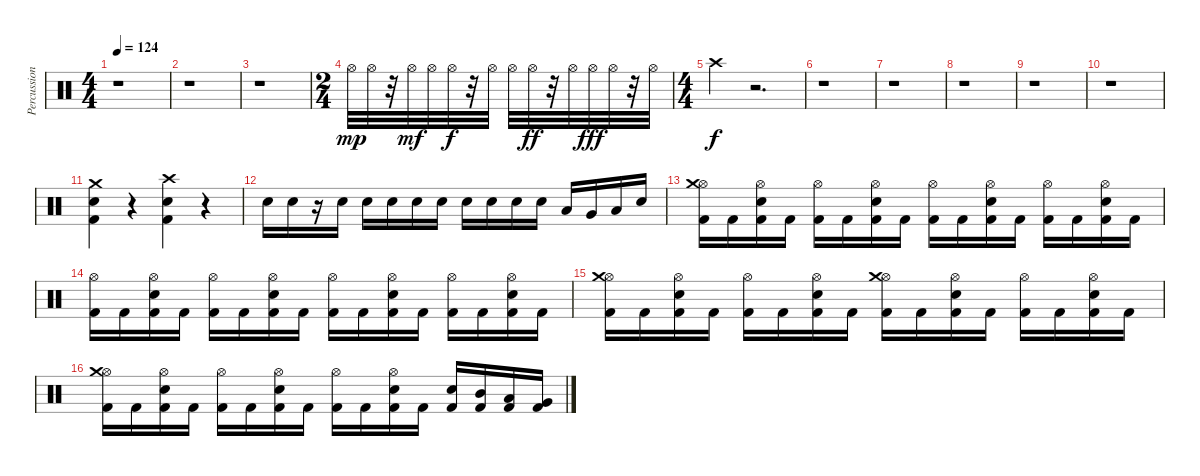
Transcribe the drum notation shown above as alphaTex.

\track ("Percussion" "Percussion") {instrument percussion}
\staff {score}
\articulation defaults
\ts (4 4)
\tempo 124
\clef neutral
\ks c
r.1{dy f} |
r.1 |
r.1 |
\ts (2 4)
"Hi-Hat (open)".32{dy mp} "Hi-Hat (open)".32 r.32 "Hi-Hat (open)".32{dy mf} "Hi-Hat (open)".32 "Hi-Hat (open)".32{dy f} r.32 "Hi-Hat (open)".32 "Hi-Hat (open)".32 "Hi-Hat (open)".32{dy ff} r.32 "Hi-Hat (open)".32 "Hi-Hat (open)".32{dy fff} "Hi-Hat (open)".32 r.32 "Hi-Hat (open)".32 |
\ts (4 4)
"Crash high (hit)".4{dy f} r.2{d} |
r.1 |
r.1 |
r.1 |
r.1 |
r.1 |
("Kick (hit) 2" "Electric Snare (hit)" "Crash medium (hit)").4 r.4 ("Kick (hit) 2" "Electric Snare (hit)" "Crash high (hit)").4 r.4 |
"Electric Snare (hit)".16 "Electric Snare (hit)".16 r.16 "Electric Snare (hit)".16 "Electric Snare (hit)".16 "Electric Snare (hit)".16 "Electric Snare (hit)".16 "Electric Snare (hit)".16 "Electric Snare (hit)".16 "Electric Snare (hit)".16 "Electric Snare (hit)".16 "Electric Snare (hit)".16 "Low Tom (hit)".16 "Very Low Tom (hit)".16 "Low Floor Tom (hit)".16 "Electric Snare (hit)".16 |
("Kick (hit) 2" "Hi-Hat (open)" "Crash medium (hit)").16 "Kick (hit) 2".16 ("Kick (hit) 2" "Electric Snare (hit)" "Hi-Hat (open)").16 "Kick (hit) 2".16 ("Kick (hit) 2" "Hi-Hat (open)").16 "Kick (hit) 2".16 ("Kick (hit) 2" "Electric Snare (hit)" "Hi-Hat (open)").16 "Kick (hit) 2".16 ("Kick (hit) 2" "Hi-Hat (open)").16 "Kick (hit) 2".16 ("Kick (hit) 2" "Electric Snare (hit)" "Hi-Hat (open)").16 "Kick (hit) 2".16 ("Kick (hit) 2" "Hi-Hat (open)").16 "Kick (hit) 2".16 ("Kick (hit) 2" "Electric Snare (hit)" "Hi-Hat (open)").16 "Kick (hit) 2".16 |
("Kick (hit) 2" "Hi-Hat (open)").16 "Kick (hit) 2".16 ("Kick (hit) 2" "Electric Snare (hit)" "Hi-Hat (open)").16 "Kick (hit) 2".16 ("Kick (hit) 2" "Hi-Hat (open)").16 "Kick (hit) 2".16 ("Kick (hit) 2" "Electric Snare (hit)" "Hi-Hat (open)").16 "Kick (hit) 2".16 ("Kick (hit) 2" "Hi-Hat (open)").16 "Kick (hit) 2".16 ("Kick (hit) 2" "Electric Snare (hit)" "Hi-Hat (open)").16 "Kick (hit) 2".16 ("Kick (hit) 2" "Hi-Hat (open)").16 "Kick (hit) 2".16 ("Kick (hit) 2" "Electric Snare (hit)" "Hi-Hat (open)").16 "Kick (hit) 2".16 |
("Kick (hit) 2" "Hi-Hat (open)" "Crash medium (hit)").16 "Kick (hit) 2".16 ("Kick (hit) 2" "Electric Snare (hit)" "Hi-Hat (open)").16 "Kick (hit) 2".16 ("Kick (hit) 2" "Hi-Hat (open)").16 "Kick (hit) 2".16 ("Kick (hit) 2" "Electric Snare (hit)" "Hi-Hat (open)").16 "Kick (hit) 2".16 ("Kick (hit) 2" "Hi-Hat (open)" "Crash medium (hit)").16 "Kick (hit) 2".16 ("Kick (hit) 2" "Electric Snare (hit)" "Hi-Hat (open)").16 "Kick (hit) 2".16 ("Kick (hit) 2" "Hi-Hat (open)").16 "Kick (hit) 2".16 ("Kick (hit) 2" "Electric Snare (hit)" "Hi-Hat (open)").16 "Kick (hit) 2".16 |
("Kick (hit) 2" "Hi-Hat (open)" "Crash medium (hit)").16 "Kick (hit) 2".16 ("Kick (hit) 2" "Electric Snare (hit)" "Hi-Hat (open)").16 "Kick (hit) 2".16 ("Kick (hit) 2" "Hi-Hat (open)").16 "Kick (hit) 2".16 ("Kick (hit) 2" "Electric Snare (hit)" "Hi-Hat (open)").16 "Kick (hit) 2".16 ("Kick (hit) 2" "Hi-Hat (open)").16 "Kick (hit) 2".16 ("Kick (hit) 2" "Electric Snare (hit)" "Hi-Hat (open)").16 "Kick (hit) 2".16 ("Kick (hit) 2" "Electric Snare (hit)").16 ("Kick (hit) 2" "Mid Tom (hit)").16 ("Kick (hit) 2" "Low Tom (hit)").16 ("Kick (hit) 2" "Very Low Tom (hit)").16
